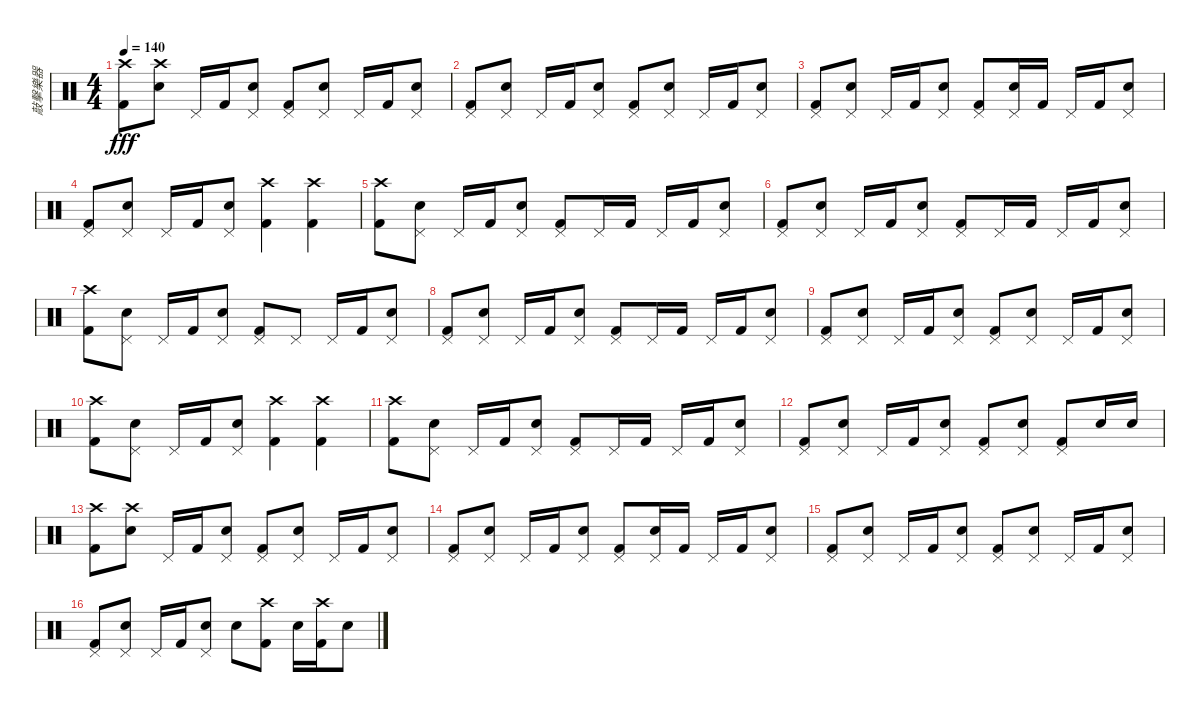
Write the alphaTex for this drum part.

\track ("敲擊樂器" "敲擊樂器") {instrument percussion}
\staff {score}
\articulation defaults
\ts (4 4)
\tempo 140
\clef neutral
\ks c
("Crash high (hit)" "Kick (hit) 2").8{dy fff} ("Crash high (hit)" "Snare (hit) 2").8 "Pedal Hi-Hat (hit)".16 "Kick (hit) 2".16 ("Pedal Hi-Hat (hit)" "Snare (hit) 2").8 ("Pedal Hi-Hat (hit)" "Kick (hit) 2").8 ("Pedal Hi-Hat (hit)" "Snare (hit) 2").8 "Pedal Hi-Hat (hit)".16 "Kick (hit) 2".16 ("Pedal Hi-Hat (hit)" "Snare (hit) 2").8 |
("Pedal Hi-Hat (hit)" "Kick (hit) 2").8 ("Pedal Hi-Hat (hit)" "Snare (hit) 2").8 "Pedal Hi-Hat (hit)".16 "Kick (hit) 2".16 ("Pedal Hi-Hat (hit)" "Snare (hit) 2").8 ("Pedal Hi-Hat (hit)" "Kick (hit) 2").8 ("Pedal Hi-Hat (hit)" "Snare (hit) 2").8 "Pedal Hi-Hat (hit)".16 "Kick (hit) 2".16 ("Pedal Hi-Hat (hit)" "Snare (hit) 2").8 |
("Pedal Hi-Hat (hit)" "Kick (hit) 2").8 ("Pedal Hi-Hat (hit)" "Snare (hit) 2").8 "Pedal Hi-Hat (hit)".16 "Kick (hit) 2".16 ("Pedal Hi-Hat (hit)" "Snare (hit) 2").8 ("Pedal Hi-Hat (hit)" "Kick (hit) 2").8 ("Pedal Hi-Hat (hit)" "Snare (hit) 2").16 "Kick (hit) 2".16 "Pedal Hi-Hat (hit)".16 "Kick (hit) 2".16 ("Pedal Hi-Hat (hit)" "Snare (hit) 2").8 |
("Pedal Hi-Hat (hit)" "Kick (hit) 2").8 ("Pedal Hi-Hat (hit)" "Snare (hit) 2").8 "Pedal Hi-Hat (hit)".16 "Kick (hit) 2".16 ("Pedal Hi-Hat (hit)" "Snare (hit) 2").8 ("Crash high (hit)" "Kick (hit) 2").4 ("Crash high (hit)" "Kick (hit) 2").4 |
("Crash high (hit)" "Kick (hit) 2").8 ("Pedal Hi-Hat (hit)" "Snare (hit) 2").8 "Pedal Hi-Hat (hit)".16 "Kick (hit) 2".16 ("Pedal Hi-Hat (hit)" "Snare (hit) 2").8 ("Pedal Hi-Hat (hit)" "Kick (hit) 2").8 "Pedal Hi-Hat (hit)".16 "Kick (hit) 2".16 "Pedal Hi-Hat (hit)".16 "Kick (hit) 2".16 ("Pedal Hi-Hat (hit)" "Snare (hit) 2").8 |
("Pedal Hi-Hat (hit)" "Kick (hit) 2").8 ("Pedal Hi-Hat (hit)" "Snare (hit) 2").8 "Pedal Hi-Hat (hit)".16 "Kick (hit) 2".16 ("Pedal Hi-Hat (hit)" "Snare (hit) 2").8 ("Pedal Hi-Hat (hit)" "Kick (hit) 2").8 "Pedal Hi-Hat (hit)".16 "Kick (hit) 2".16 "Pedal Hi-Hat (hit)".16 "Kick (hit) 2".16 ("Pedal Hi-Hat (hit)" "Snare (hit) 2").8 |
("Crash high (hit)" "Kick (hit) 2").8 ("Pedal Hi-Hat (hit)" "Snare (hit) 2").8 "Pedal Hi-Hat (hit)".16 "Kick (hit) 2".16 ("Pedal Hi-Hat (hit)" "Snare (hit) 2").8 ("Pedal Hi-Hat (hit)" "Kick (hit) 2").8 "Pedal Hi-Hat (hit)".8 "Pedal Hi-Hat (hit)".16 "Kick (hit) 2".16 ("Pedal Hi-Hat (hit)" "Snare (hit) 2").8 |
("Pedal Hi-Hat (hit)" "Kick (hit) 2").8 ("Pedal Hi-Hat (hit)" "Snare (hit) 2").8 "Pedal Hi-Hat (hit)".16 "Kick (hit) 2".16 ("Pedal Hi-Hat (hit)" "Snare (hit) 2").8 ("Pedal Hi-Hat (hit)" "Kick (hit) 2").8 "Pedal Hi-Hat (hit)".16 "Kick (hit) 2".16 "Pedal Hi-Hat (hit)".16 "Kick (hit) 2".16 ("Pedal Hi-Hat (hit)" "Snare (hit) 2").8 |
("Pedal Hi-Hat (hit)" "Kick (hit) 2").8 ("Pedal Hi-Hat (hit)" "Snare (hit) 2").8 "Pedal Hi-Hat (hit)".16 "Kick (hit) 2".16 ("Pedal Hi-Hat (hit)" "Snare (hit) 2").8 ("Pedal Hi-Hat (hit)" "Kick (hit) 2").8 ("Pedal Hi-Hat (hit)" "Snare (hit) 2").8 "Pedal Hi-Hat (hit)".16 "Kick (hit) 2".16 ("Pedal Hi-Hat (hit)" "Snare (hit) 2").8 |
("Crash high (hit)" "Kick (hit) 2").8 ("Pedal Hi-Hat (hit)" "Snare (hit) 2").8 "Pedal Hi-Hat (hit)".16 "Kick (hit) 2".16 ("Pedal Hi-Hat (hit)" "Snare (hit) 2").8 ("Crash high (hit)" "Kick (hit) 2").4 ("Crash high (hit)" "Kick (hit) 2").4 |
("Crash high (hit)" "Kick (hit) 2").8 ("Pedal Hi-Hat (hit)" "Snare (hit) 2").8 "Pedal Hi-Hat (hit)".16 "Kick (hit) 2".16 ("Pedal Hi-Hat (hit)" "Snare (hit) 2").8 ("Pedal Hi-Hat (hit)" "Kick (hit) 2").8 "Pedal Hi-Hat (hit)".16 "Kick (hit) 2".16 "Pedal Hi-Hat (hit)".16 "Kick (hit) 2".16 ("Pedal Hi-Hat (hit)" "Snare (hit) 2").8 |
("Pedal Hi-Hat (hit)" "Kick (hit) 2").8 ("Pedal Hi-Hat (hit)" "Snare (hit) 2").8 "Pedal Hi-Hat (hit)".16 "Kick (hit) 2".16 ("Pedal Hi-Hat (hit)" "Snare (hit) 2").8 ("Pedal Hi-Hat (hit)" "Kick (hit) 2").8 ("Pedal Hi-Hat (hit)" "Snare (hit) 2").8 ("Pedal Hi-Hat (hit)" "Kick (hit) 2").8 "Snare (hit) 2".16 "Snare (hit) 2".16 |
("Crash high (hit)" "Kick (hit) 2").8 ("Crash high (hit)" "Snare (hit) 2").8 "Pedal Hi-Hat (hit)".16 "Kick (hit) 2".16 ("Pedal Hi-Hat (hit)" "Snare (hit) 2").8 ("Pedal Hi-Hat (hit)" "Kick (hit) 2").8 ("Pedal Hi-Hat (hit)" "Snare (hit) 2").8 "Pedal Hi-Hat (hit)".16 "Kick (hit) 2".16 ("Pedal Hi-Hat (hit)" "Snare (hit) 2").8 |
("Pedal Hi-Hat (hit)" "Kick (hit) 2").8 ("Pedal Hi-Hat (hit)" "Snare (hit) 2").8 "Pedal Hi-Hat (hit)".16 "Kick (hit) 2".16 ("Pedal Hi-Hat (hit)" "Snare (hit) 2").8 ("Pedal Hi-Hat (hit)" "Kick (hit) 2").8 ("Pedal Hi-Hat (hit)" "Snare (hit) 2").16 "Kick (hit) 2".16 "Pedal Hi-Hat (hit)".16 "Kick (hit) 2".16 ("Pedal Hi-Hat (hit)" "Snare (hit) 2").8 |
("Pedal Hi-Hat (hit)" "Kick (hit) 2").8 ("Pedal Hi-Hat (hit)" "Snare (hit) 2").8 "Pedal Hi-Hat (hit)".16 "Kick (hit) 2".16 ("Pedal Hi-Hat (hit)" "Snare (hit) 2").8 ("Pedal Hi-Hat (hit)" "Kick (hit) 2").8 ("Pedal Hi-Hat (hit)" "Snare (hit) 2").8 "Pedal Hi-Hat (hit)".16 "Kick (hit) 2".16 ("Pedal Hi-Hat (hit)" "Snare (hit) 2").8 |
("Pedal Hi-Hat (hit)" "Kick (hit) 2").8 ("Pedal Hi-Hat (hit)" "Snare (hit) 2").8 "Pedal Hi-Hat (hit)".16 "Kick (hit) 2".16 ("Pedal Hi-Hat (hit)" "Snare (hit) 2").8 "Snare (hit) 2".8 ("Crash high (hit)" "Kick (hit) 2").8 "Snare (hit) 2".16 ("Crash high (hit)" "Kick (hit) 2").16 "Snare (hit) 2".8
